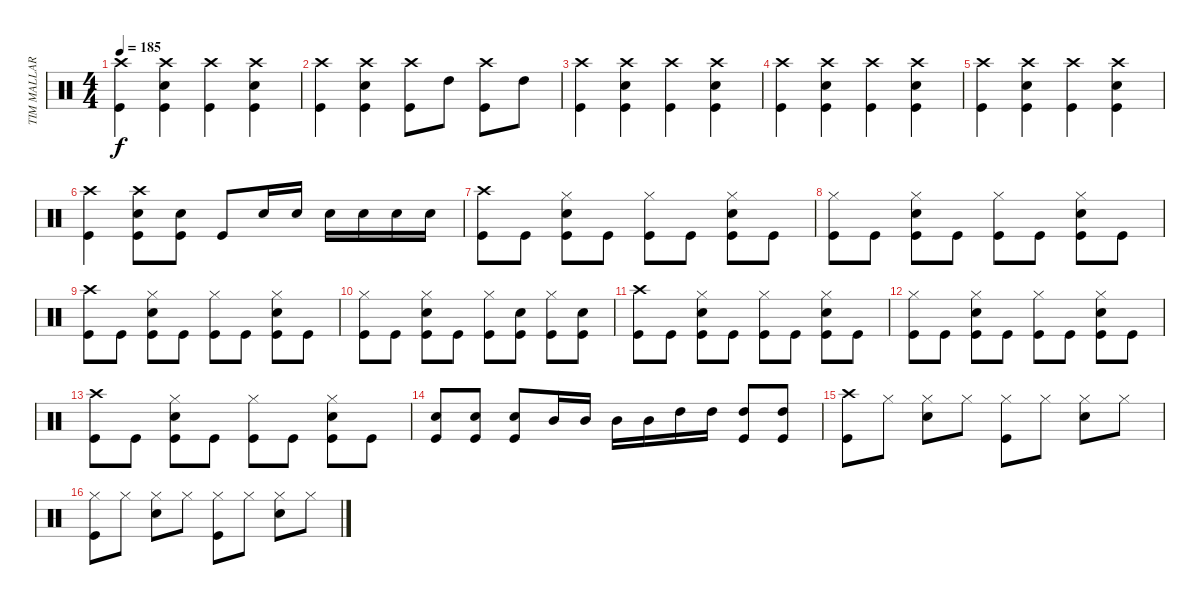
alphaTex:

\track ("TIM MALLARE - drums" "TIM MALLAR") {instrument percussion}
\staff {score}
\articulation defaults
\ts (4 4)
\tempo 185
\clef neutral
\ks c
("Crash high (hit)" "Kick (hit)").4{dy f} ("Crash high (hit)" "Electric Snare (hit)" "Kick (hit)").4 ("Crash high (hit)" "Kick (hit)").4 ("Crash high (hit)" "Electric Snare (hit)" "Kick (hit)").4 |
("Crash high (hit)" "Kick (hit)").4 ("Electric Snare (hit)" "Crash high (hit)" "Kick (hit)").4 ("Crash high (hit)" "Kick (hit)").8 "High Tom (hit)".8 ("Crash high (hit)" "Kick (hit)").8 "High Tom (hit)".8 |
("Crash high (hit)" "Kick (hit)").4 ("Crash high (hit)" "Electric Snare (hit)" "Kick (hit)").4 ("Crash high (hit)" "Kick (hit)").4 ("Crash high (hit)" "Electric Snare (hit)" "Kick (hit)").4 |
("Crash high (hit)" "Kick (hit)").4 ("Electric Snare (hit)" "Crash high (hit)" "Kick (hit)").4 ("Crash high (hit)" "Kick (hit)").4 ("Electric Snare (hit)" "Crash high (hit)" "Kick (hit)").4 |
("Crash high (hit)" "Kick (hit)").4 ("Electric Snare (hit)" "Crash high (hit)" "Kick (hit)").4 ("Crash high (hit)" "Kick (hit)").4 ("Electric Snare (hit)" "Crash high (hit)" "Kick (hit)").4 |
("Crash high (hit)" "Kick (hit)").4 ("Electric Snare (hit)" "Crash high (hit)" "Kick (hit)").8 ("Electric Snare (hit)" "Kick (hit)").8 "Kick (hit)".8 "Electric Snare (hit)".16 "Electric Snare (hit)".16 "Electric Snare (hit)".16 "Electric Snare (hit)".16 "Electric Snare (hit)".16 "Electric Snare (hit)".16 |
("Crash high (hit)" "Kick (hit)").8 "Kick (hit)".8 ("Hi-Hat (closed)" "Electric Snare (hit)" "Kick (hit)").8 "Kick (hit)".8 ("Hi-Hat (closed)" "Kick (hit)").8 "Kick (hit)".8 ("Hi-Hat (closed)" "Electric Snare (hit)" "Kick (hit)").8 "Kick (hit)".8 |
("Hi-Hat (closed)" "Kick (hit)").8 "Kick (hit)".8 ("Hi-Hat (closed)" "Electric Snare (hit)" "Kick (hit)").8 "Kick (hit)".8 ("Hi-Hat (closed)" "Kick (hit)").8 "Kick (hit)".8 ("Hi-Hat (closed)" "Electric Snare (hit)" "Kick (hit)").8 "Kick (hit)".8 |
("Crash high (hit)" "Kick (hit)").8 "Kick (hit)".8 ("Hi-Hat (closed)" "Electric Snare (hit)" "Kick (hit)").8 "Kick (hit)".8 ("Hi-Hat (closed)" "Kick (hit)").8 "Kick (hit)".8 ("Hi-Hat (closed)" "Electric Snare (hit)" "Kick (hit)").8 "Kick (hit)".8 |
("Hi-Hat (closed)" "Kick (hit)").8 "Kick (hit)".8 ("Hi-Hat (closed)" "Electric Snare (hit)" "Kick (hit)").8 "Kick (hit)".8 ("Hi-Hat (closed)" "Kick (hit)").8 ("Electric Snare (hit)" "Kick (hit)").8 ("Hi-Hat (closed)" "Kick (hit)").8 ("Electric Snare (hit)" "Kick (hit)").8 |
("Crash high (hit)" "Kick (hit)").8 "Kick (hit)".8 ("Hi-Hat (closed)" "Electric Snare (hit)" "Kick (hit)").8 "Kick (hit)".8 ("Hi-Hat (closed)" "Kick (hit)").8 "Kick (hit)".8 ("Hi-Hat (closed)" "Electric Snare (hit)" "Kick (hit)").8 "Kick (hit)".8 |
("Hi-Hat (closed)" "Kick (hit)").8 "Kick (hit)".8 ("Hi-Hat (closed)" "Electric Snare (hit)" "Kick (hit)").8 "Kick (hit)".8 ("Hi-Hat (closed)" "Kick (hit)").8 "Kick (hit)".8 ("Hi-Hat (closed)" "Electric Snare (hit)" "Kick (hit)").8 "Kick (hit)".8 |
("Crash high (hit)" "Kick (hit)").8 "Kick (hit)".8 ("Hi-Hat (closed)" "Electric Snare (hit)" "Kick (hit)").8 "Kick (hit)".8 ("Hi-Hat (closed)" "Kick (hit)").8 "Kick (hit)".8 ("Hi-Hat (closed)" "Electric Snare (hit)" "Kick (hit)").8 "Kick (hit)".8 |
("Electric Snare (hit)" "Kick (hit)").8 ("Electric Snare (hit)" "Kick (hit)").8 ("Electric Snare (hit)" "Kick (hit)").8 "Mid Tom (hit)".16 "Mid Tom (hit)".16 "Mid Tom (hit)".16 "Mid Tom (hit)".16 "High Tom (hit)".16 "High Tom (hit)".16 ("High Tom (hit)" "Kick (hit)").8 ("High Tom (hit)" "Kick (hit)").8 |
("Crash high (hit)" "Kick (hit)").8 "Hi-Hat (closed)".8 ("Hi-Hat (closed)" "Electric Snare (hit)").8 "Hi-Hat (closed)".8 ("Hi-Hat (closed)" "Kick (hit)").8 "Hi-Hat (closed)".8 ("Hi-Hat (closed)" "Electric Snare (hit)").8 "Hi-Hat (closed)".8 |
("Hi-Hat (closed)" "Kick (hit)").8 "Hi-Hat (closed)".8 ("Hi-Hat (closed)" "Electric Snare (hit)").8 "Hi-Hat (closed)".8 ("Hi-Hat (closed)" "Kick (hit)").8 "Hi-Hat (closed)".8 ("Hi-Hat (closed)" "Electric Snare (hit)").8 "Hi-Hat (closed)".8
